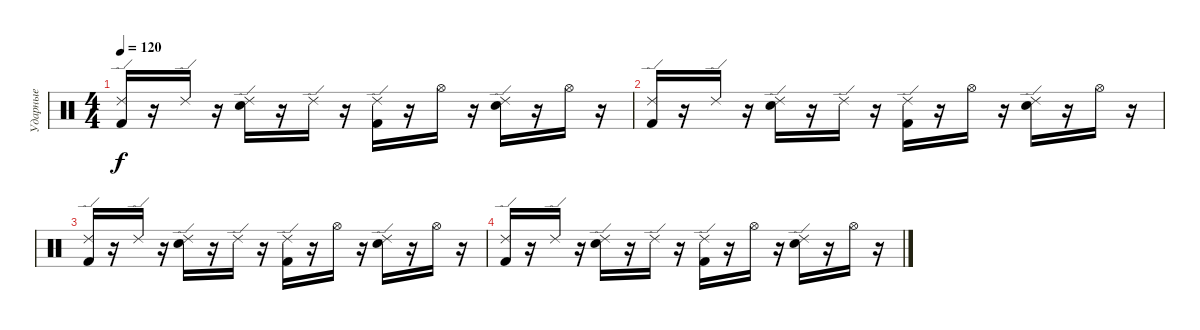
\track ("Ударные" "Ударные") {instrument percussion}
\staff {score}
\articulation defaults
\ts (4 4)
\tempo 120
\clef neutral
\ks c
("Ride (edge) 2" "Kick (hit) 2").16{dy f} r.16 "Ride (edge) 2".16 r.16 ("Ride (edge) 2" "Electric Snare (hit)").16 r.16 "Ride (edge) 2".16 r.16 ("Ride (edge) 2" "Kick (hit) 2").16 r.16 "Hi-Hat (open)".16 r.16 ("Ride (edge) 2" "Electric Snare (hit)").16 r.16 "Hi-Hat (open)".16 r.16 |
("Ride (edge) 2" "Kick (hit) 2").16 r.16 "Ride (edge) 2".16 r.16 ("Ride (edge) 2" "Electric Snare (hit)").16 r.16 "Ride (edge) 2".16 r.16 ("Ride (edge) 2" "Kick (hit) 2").16 r.16 "Hi-Hat (open)".16 r.16 ("Ride (edge) 2" "Electric Snare (hit)").16 r.16 "Hi-Hat (open)".16 r.16 |
("Ride (edge) 2" "Kick (hit) 2").16 r.16 "Ride (edge) 2".16 r.16 ("Ride (edge) 2" "Electric Snare (hit)").16 r.16 "Ride (edge) 2".16 r.16 ("Ride (edge) 2" "Kick (hit) 2").16 r.16 "Hi-Hat (open)".16 r.16 ("Ride (edge) 2" "Electric Snare (hit)").16 r.16 "Hi-Hat (open)".16 r.16 |
("Ride (edge) 2" "Kick (hit) 2").16 r.16 "Ride (edge) 2".16 r.16 ("Ride (edge) 2" "Electric Snare (hit)").16 r.16 "Ride (edge) 2".16 r.16 ("Ride (edge) 2" "Kick (hit) 2").16 r.16 "Hi-Hat (open)".16 r.16 ("Ride (edge) 2" "Electric Snare (hit)").16 r.16 "Hi-Hat (open)".16 r.16
